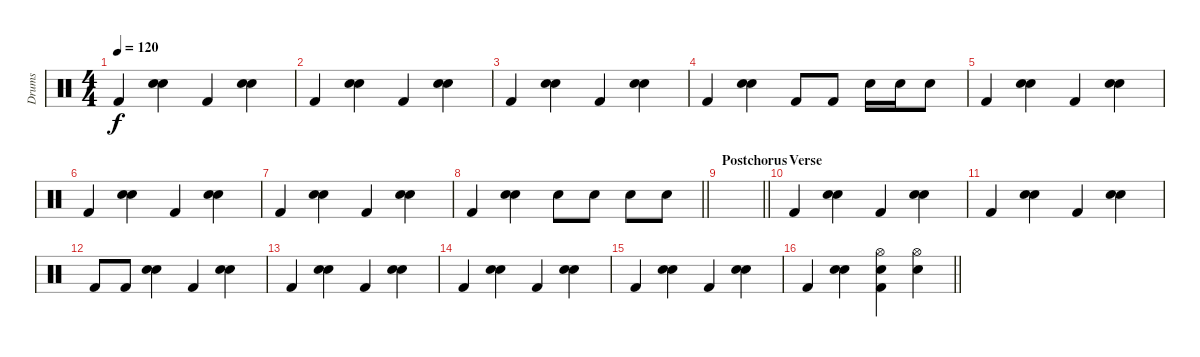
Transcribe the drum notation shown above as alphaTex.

\track ("Drums" "Drums") {instrument percussion}
\staff {score}
\articulation defaults
\ts (4 4)
\tempo 120
\clef neutral
\ks c "Kick (hit) 2".4{dy f}
("Electric Snare (hit)" "Snare (hit) 2").4 "Kick (hit) 2".4 ("Electric Snare (hit)" "Snare (hit) 2").4 |
"Kick (hit) 2".4 ("Electric Snare (hit)" "Snare (hit) 2").4 "Kick (hit) 2".4 ("Electric Snare (hit)" "Snare (hit) 2").4 |
"Kick (hit) 2".4 ("Electric Snare (hit)" "Snare (hit) 2").4 "Kick (hit) 2".4 ("Electric Snare (hit)" "Snare (hit) 2").4 |
"Kick (hit) 2".4 ("Electric Snare (hit)" "Snare (hit) 2").4 "Kick (hit) 2".8 "Kick (hit) 2".8 "Electric Snare (hit)".16 "Electric Snare (hit)".16 "Snare (hit) 2".8 |
"Kick (hit) 2".4 ("Electric Snare (hit)" "Snare (hit) 2").4 "Kick (hit) 2".4 ("Electric Snare (hit)" "Snare (hit) 2").4 |
"Kick (hit) 2".4 ("Electric Snare (hit)" "Snare (hit) 2").4 "Kick (hit) 2".4 ("Electric Snare (hit)" "Snare (hit) 2").4 |
"Kick (hit) 2".4 ("Electric Snare (hit)" "Snare (hit) 2").4 "Kick (hit) 2".4 ("Electric Snare (hit)" "Snare (hit) 2").4 |
\barLineRight lightlight "Kick (hit) 2".4
("Electric Snare (hit)" "Snare (hit) 2").4 "Snare (hit) 2".8 "Snare (hit) 2".8 "Snare (hit) 2".8 "Snare (hit) 2".8 |
\section ("" "Postchorus")
\barLineRight lightlight
|
\section ("" "Verse")
"Kick (hit) 2".4 ("Electric Snare (hit)" "Snare (hit) 2").4 "Kick (hit) 2".4 ("Electric Snare (hit)" "Snare (hit) 2").4 |
"Kick (hit) 2".4 ("Electric Snare (hit)" "Snare (hit) 2").4 "Kick (hit) 2".4 ("Electric Snare (hit)" "Snare (hit) 2").4 |
"Kick (hit) 2".8 "Kick (hit) 2".8 ("Electric Snare (hit)" "Snare (hit) 2").4 "Kick (hit) 2".4 ("Electric Snare (hit)" "Snare (hit) 2").4 |
"Kick (hit) 2".4 ("Electric Snare (hit)" "Snare (hit) 2").4 "Kick (hit) 2".4 ("Electric Snare (hit)" "Snare (hit) 2").4 |
"Kick (hit) 2".4 ("Electric Snare (hit)" "Snare (hit) 2").4 "Kick (hit) 2".4 ("Electric Snare (hit)" "Snare (hit) 2").4 |
"Kick (hit) 2".4 ("Electric Snare (hit)" "Snare (hit) 2").4 "Kick (hit) 2".4 ("Electric Snare (hit)" "Snare (hit) 2").4 |
\barLineRight lightlight "Kick (hit) 2".4
("Electric Snare (hit)" "Snare (hit) 2").4 ("Hi-Hat (open)" "Snare (hit) 2" "Kick (hit) 2").4 ("Hi-Hat (open)" "Snare (hit) 2").4
